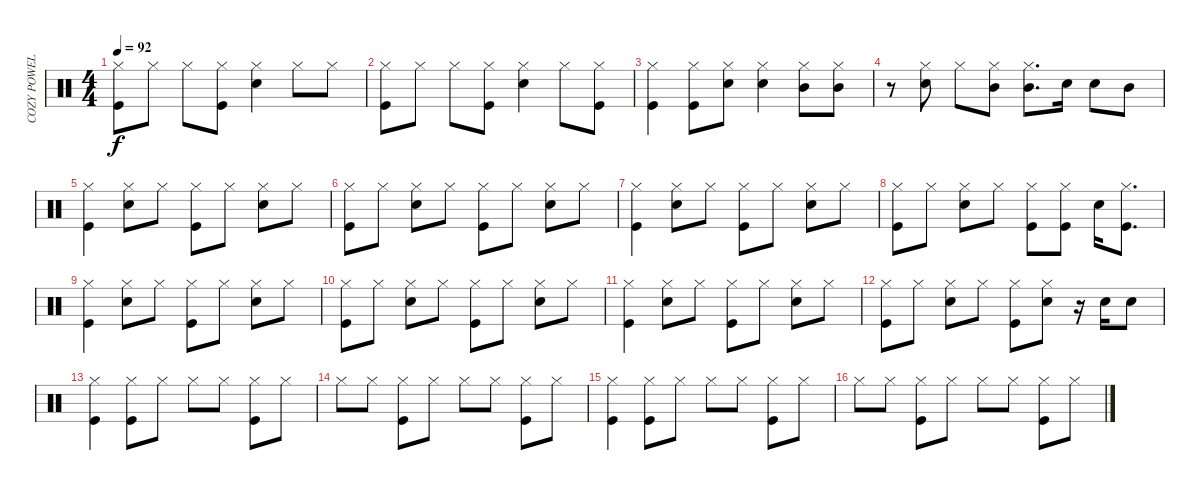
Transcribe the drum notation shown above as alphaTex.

\track ("COZY POWELL" "COZY POWEL") {instrument percussion}
\staff {score}
\articulation defaults
\ts (4 4)
\tempo 92
\clef neutral
\ks c
("Hi-Hat (closed)" "Kick (hit)").8{dy f} "Hi-Hat (closed)".8 "Hi-Hat (closed)".8 ("Hi-Hat (closed)" "Kick (hit)").8 ("Hi-Hat (closed)" "Snare (hit) 2").4 "Hi-Hat (closed)".8 "Hi-Hat (closed)".8 |
("Hi-Hat (closed)" "Kick (hit)").8 "Hi-Hat (closed)".8 "Hi-Hat (closed)".8 ("Hi-Hat (closed)" "Kick (hit)").8 ("Hi-Hat (closed)" "Snare (hit) 2").4 "Hi-Hat (closed)".8 ("Hi-Hat (closed)" "Kick (hit)").8 |
("Hi-Hat (closed)" "Kick (hit)").4 ("Hi-Hat (closed)" "Kick (hit)").8 ("Hi-Hat (closed)" "Snare (hit) 2").8 ("Hi-Hat (closed)" "Snare (hit) 2").4 ("Hi-Hat (closed)" "Mid Tom (hit)").8 ("Hi-Hat (closed)" "Mid Tom (hit)").8 |
r.8 ("Hi-Hat (closed)" "Snare (hit) 2").8 "Hi-Hat (closed)".8 ("Hi-Hat (closed)" "Mid Tom (hit)").8 ("Hi-Hat (closed)" "Mid Tom (hit)").8{d} "Snare (hit) 2".16 "Snare (hit) 2".8 "Mid Tom (hit)".8 |
("Hi-Hat (closed)" "Kick (hit)").4 ("Hi-Hat (closed)" "Snare (hit) 2").8 "Hi-Hat (closed)".8 ("Hi-Hat (closed)" "Kick (hit)").8 "Hi-Hat (closed)".8 ("Hi-Hat (closed)" "Snare (hit) 2").8 "Hi-Hat (closed)".8 |
("Hi-Hat (closed)" "Kick (hit)").8 "Hi-Hat (closed)".8 ("Hi-Hat (closed)" "Snare (hit) 2").8 "Hi-Hat (closed)".8 ("Hi-Hat (closed)" "Kick (hit)").8 "Hi-Hat (closed)".8 ("Hi-Hat (closed)" "Snare (hit) 2").8 "Hi-Hat (closed)".8 |
("Hi-Hat (closed)" "Kick (hit)").4 ("Hi-Hat (closed)" "Snare (hit) 2").8 "Hi-Hat (closed)".8 ("Hi-Hat (closed)" "Kick (hit)").8 "Hi-Hat (closed)".8 ("Hi-Hat (closed)" "Snare (hit) 2").8 "Hi-Hat (closed)".8 |
("Hi-Hat (closed)" "Kick (hit)").8 "Hi-Hat (closed)".8 ("Hi-Hat (closed)" "Snare (hit) 2").8 "Hi-Hat (closed)".8 ("Hi-Hat (closed)" "Kick (hit)").8 ("Hi-Hat (closed)" "Kick (hit)").8 "Snare (hit) 2".16 ("Hi-Hat (closed)" "Kick (hit)").8{d} |
("Hi-Hat (closed)" "Kick (hit)").4 ("Hi-Hat (closed)" "Snare (hit) 2").8 "Hi-Hat (closed)".8 ("Hi-Hat (closed)" "Kick (hit)").8 "Hi-Hat (closed)".8 ("Hi-Hat (closed)" "Snare (hit) 2").8 "Hi-Hat (closed)".8 |
("Hi-Hat (closed)" "Kick (hit)").8 "Hi-Hat (closed)".8 ("Hi-Hat (closed)" "Snare (hit) 2").8 "Hi-Hat (closed)".8 ("Hi-Hat (closed)" "Kick (hit)").8 "Hi-Hat (closed)".8 ("Hi-Hat (closed)" "Snare (hit) 2").8 "Hi-Hat (closed)".8 |
("Hi-Hat (closed)" "Kick (hit)").4 ("Hi-Hat (closed)" "Snare (hit) 2").8 "Hi-Hat (closed)".8 ("Hi-Hat (closed)" "Kick (hit)").8 "Hi-Hat (closed)".8 ("Hi-Hat (closed)" "Snare (hit) 2").8 "Hi-Hat (closed)".8 |
("Hi-Hat (closed)" "Kick (hit)").8 "Hi-Hat (closed)".8 ("Hi-Hat (closed)" "Snare (hit) 2").8 "Hi-Hat (closed)".8 ("Hi-Hat (closed)" "Kick (hit)").8 ("Hi-Hat (closed)" "Snare (hit) 2").8 r.16 "Snare (hit) 2".16 "Snare (hit) 2".8 |
("Hi-Hat (closed)" "Kick (hit)").4 ("Hi-Hat (closed)" "Kick (hit)").8 "Hi-Hat (closed)".8 "Hi-Hat (closed)".8 "Hi-Hat (closed)".8 ("Hi-Hat (closed)" "Kick (hit)").8 "Hi-Hat (closed)".8 |
"Hi-Hat (closed)".8 "Hi-Hat (closed)".8 ("Hi-Hat (closed)" "Kick (hit)").8 "Hi-Hat (closed)".8 "Hi-Hat (closed)".8 "Hi-Hat (closed)".8 ("Hi-Hat (closed)" "Kick (hit)").8 "Hi-Hat (closed)".8 |
("Hi-Hat (closed)" "Kick (hit)").4 ("Hi-Hat (closed)" "Kick (hit)").8 "Hi-Hat (closed)".8 "Hi-Hat (closed)".8 "Hi-Hat (closed)".8 ("Hi-Hat (closed)" "Kick (hit)").8 "Hi-Hat (closed)".8 |
"Hi-Hat (closed)".8 "Hi-Hat (closed)".8 ("Hi-Hat (closed)" "Kick (hit)").8 "Hi-Hat (closed)".8 "Hi-Hat (closed)".8 "Hi-Hat (closed)".8 ("Hi-Hat (closed)" "Kick (hit)").8 "Hi-Hat (closed)".8
